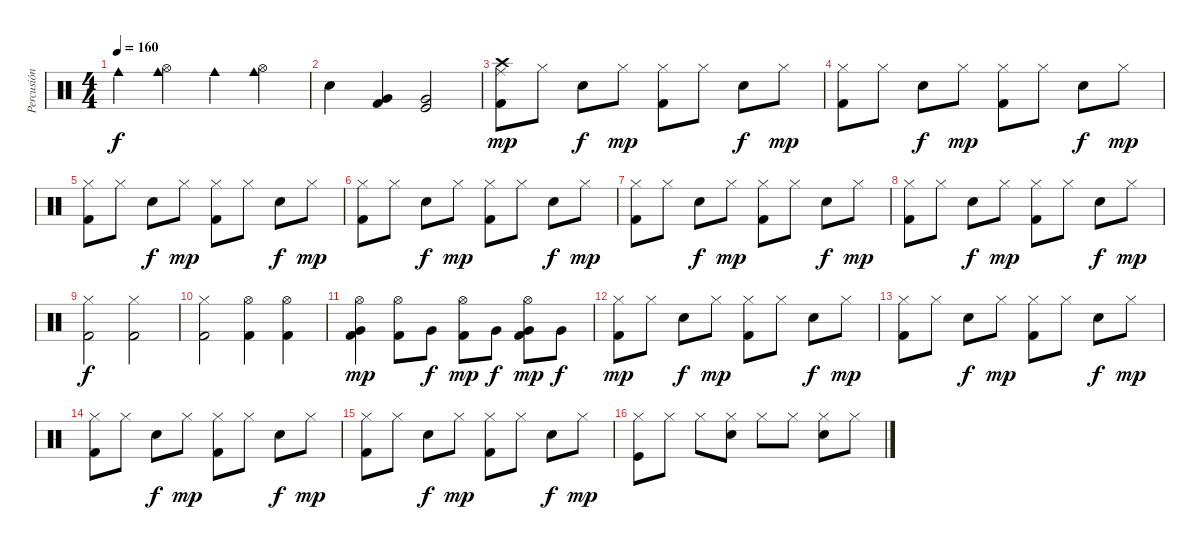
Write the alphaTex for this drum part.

\track ("Percusión" "Percusión") {instrument percussion}
\staff {score}
\articulation defaults
\ts (4 4)
\tempo 160
\clef neutral
\ks c "Cowbell medium (hit)".4{dy f}
("Cowbell medium (hit)" "Hi-Hat (open)").4 "Cowbell medium (hit)".4 ("Cowbell medium (hit)" "Hi-Hat (open)").4 |
"Snare (hit) 2".4 ("Very Low Tom (hit)" "Kick (hit) 2").4 ("Very Low Tom (hit)" "Kick (hit)").2 |
("Crash high (hit)" "Ride (middle)" "Kick (hit) 2").8{dy mp} "Hi-Hat (closed)".8 "Snare (hit) 2".8{dy f} "Hi-Hat (closed)".8{dy mp} ("Hi-Hat (closed)" "Kick (hit) 2").8 "Hi-Hat (closed)".8 "Snare (hit) 2".8{dy f} "Hi-Hat (closed)".8{dy mp} |
("Hi-Hat (closed)" "Kick (hit) 2").8 "Hi-Hat (closed)".8 "Snare (hit) 2".8{dy f} "Hi-Hat (closed)".8{dy mp} ("Hi-Hat (closed)" "Kick (hit) 2").8 "Hi-Hat (closed)".8 "Snare (hit) 2".8{dy f} "Hi-Hat (closed)".8{dy mp} |
("Hi-Hat (closed)" "Kick (hit) 2").8 "Hi-Hat (closed)".8 "Snare (hit) 2".8{dy f} "Hi-Hat (closed)".8{dy mp} ("Hi-Hat (closed)" "Kick (hit) 2").8 "Hi-Hat (closed)".8 "Snare (hit) 2".8{dy f} "Hi-Hat (closed)".8{dy mp} |
("Hi-Hat (closed)" "Kick (hit) 2").8 "Hi-Hat (closed)".8 "Snare (hit) 2".8{dy f} "Hi-Hat (closed)".8{dy mp} ("Hi-Hat (closed)" "Kick (hit) 2").8 "Hi-Hat (closed)".8 "Snare (hit) 2".8{dy f} "Hi-Hat (closed)".8{dy mp} |
("Hi-Hat (closed)" "Kick (hit) 2").8 "Hi-Hat (closed)".8 "Snare (hit) 2".8{dy f} "Hi-Hat (closed)".8{dy mp} ("Hi-Hat (closed)" "Kick (hit) 2").8 "Hi-Hat (closed)".8 "Snare (hit) 2".8{dy f} "Hi-Hat (closed)".8{dy mp} |
("Hi-Hat (closed)" "Kick (hit) 2").8 "Hi-Hat (closed)".8 "Snare (hit) 2".8{dy f} "Hi-Hat (closed)".8{dy mp} ("Hi-Hat (closed)" "Kick (hit) 2").8 "Hi-Hat (closed)".8 "Snare (hit) 2".8{dy f} "Hi-Hat (closed)".8{dy mp} |
("Hi-Hat (closed)" "Kick (hit) 2").2{dy f} ("Hi-Hat (closed)" "Kick (hit) 2").2 |
("Hi-Hat (closed)" "Kick (hit) 2").2 ("Hi-Hat (open)" "Kick (hit) 2").4 ("Hi-Hat (open)" "Kick (hit) 2").4 |
("Hi-Hat (open)" "Very Low Tom (hit)" "Kick (hit) 2").4{dy mp} ("Hi-Hat (open)" "Kick (hit) 2").8 "Very Low Tom (hit)".8{dy f} ("Hi-Hat (open)" "Kick (hit) 2").8{dy mp} "Very Low Tom (hit)".8{dy f} ("Hi-Hat (open)" "Very Low Tom (hit)" "Kick (hit) 2").8{dy mp} "Very Low Tom (hit)".8{dy f} |
("Hi-Hat (closed)" "Kick (hit) 2").8{dy mp} "Hi-Hat (closed)".8 "Snare (hit) 2".8{dy f} "Hi-Hat (closed)".8{dy mp} ("Hi-Hat (closed)" "Kick (hit) 2").8 "Hi-Hat (closed)".8 "Snare (hit) 2".8{dy f} "Hi-Hat (closed)".8{dy mp} |
("Hi-Hat (closed)" "Kick (hit) 2").8 "Hi-Hat (closed)".8 "Snare (hit) 2".8{dy f} "Hi-Hat (closed)".8{dy mp} ("Hi-Hat (closed)" "Kick (hit) 2").8 "Hi-Hat (closed)".8 "Snare (hit) 2".8{dy f} "Hi-Hat (closed)".8{dy mp} |
("Hi-Hat (closed)" "Kick (hit) 2").8 "Hi-Hat (closed)".8 "Snare (hit) 2".8{dy f} "Hi-Hat (closed)".8{dy mp} ("Hi-Hat (closed)" "Kick (hit) 2").8 "Hi-Hat (closed)".8 "Snare (hit) 2".8{dy f} "Hi-Hat (closed)".8{dy mp} |
("Hi-Hat (closed)" "Kick (hit) 2").8 "Hi-Hat (closed)".8 "Snare (hit) 2".8{dy f} "Hi-Hat (closed)".8{dy mp} ("Hi-Hat (closed)" "Kick (hit) 2").8 "Hi-Hat (closed)".8 "Snare (hit) 2".8{dy f} "Hi-Hat (closed)".8{dy mp} |
("Hi-Hat (closed)" "Kick (hit)").8 "Hi-Hat (closed)".8 "Hi-Hat (closed)".8 ("Hi-Hat (closed)" "Snare (hit) 2").8 "Hi-Hat (closed)".8 "Hi-Hat (closed)".8 ("Hi-Hat (closed)" "Snare (hit) 2").8 "Hi-Hat (closed)".8
